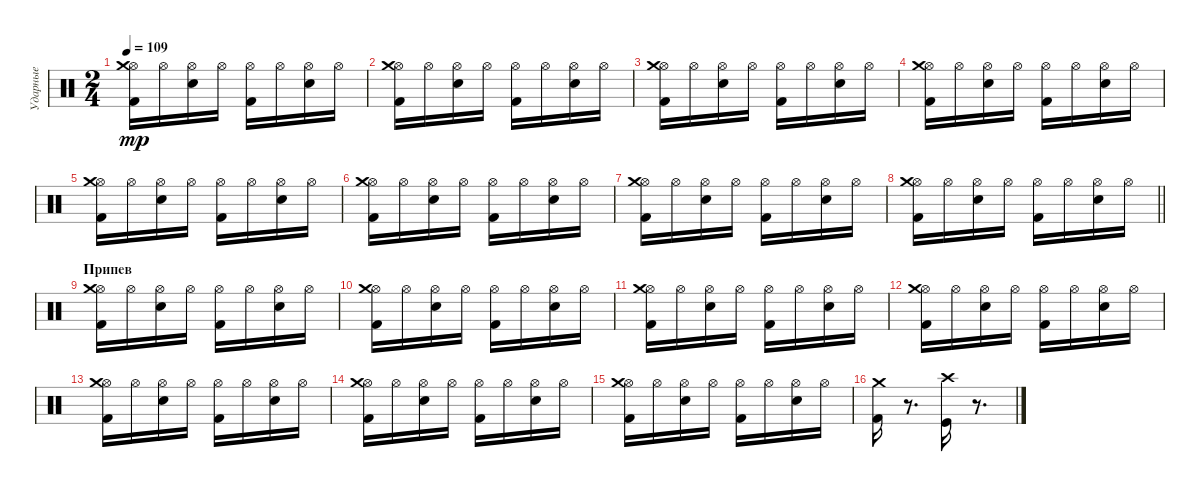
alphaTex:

\track ("Ударные" "Ударные") {instrument percussion}
\staff {score}
\articulation defaults
\ts (2 4)
\tempo 109
\clef neutral
\ks c
("Kick (hit) 2" "Hi-Hat (open)" "Crash medium (hit)").16{dy mp} "Hi-Hat (open)".16 ("Electric Snare (hit)" "Hi-Hat (open)").16 "Hi-Hat (open)".16 ("Kick (hit) 2" "Hi-Hat (open)").16 "Hi-Hat (open)".16 ("Electric Snare (hit)" "Hi-Hat (open)").16 "Hi-Hat (open)".16 |
("Kick (hit) 2" "Hi-Hat (open)" "Crash medium (hit)").16 "Hi-Hat (open)".16 ("Electric Snare (hit)" "Hi-Hat (open)").16 "Hi-Hat (open)".16 ("Kick (hit) 2" "Hi-Hat (open)").16 "Hi-Hat (open)".16 ("Electric Snare (hit)" "Hi-Hat (open)").16 "Hi-Hat (open)".16 |
("Kick (hit) 2" "Hi-Hat (open)" "Crash medium (hit)").16 "Hi-Hat (open)".16 ("Electric Snare (hit)" "Hi-Hat (open)").16 "Hi-Hat (open)".16 ("Kick (hit) 2" "Hi-Hat (open)").16 "Hi-Hat (open)".16 ("Electric Snare (hit)" "Hi-Hat (open)").16 "Hi-Hat (open)".16 |
("Kick (hit) 2" "Hi-Hat (open)" "Crash medium (hit)").16 "Hi-Hat (open)".16 ("Electric Snare (hit)" "Hi-Hat (open)").16 "Hi-Hat (open)".16 ("Kick (hit) 2" "Hi-Hat (open)").16 "Hi-Hat (open)".16 ("Electric Snare (hit)" "Hi-Hat (open)").16 "Hi-Hat (open)".16 |
("Kick (hit) 2" "Hi-Hat (open)" "Crash medium (hit)").16 "Hi-Hat (open)".16 ("Electric Snare (hit)" "Hi-Hat (open)").16 "Hi-Hat (open)".16 ("Kick (hit) 2" "Hi-Hat (open)").16 "Hi-Hat (open)".16 ("Electric Snare (hit)" "Hi-Hat (open)").16 "Hi-Hat (open)".16 |
("Kick (hit) 2" "Hi-Hat (open)" "Crash medium (hit)").16 "Hi-Hat (open)".16 ("Electric Snare (hit)" "Hi-Hat (open)").16 "Hi-Hat (open)".16 ("Kick (hit) 2" "Hi-Hat (open)").16 "Hi-Hat (open)".16 ("Electric Snare (hit)" "Hi-Hat (open)").16 "Hi-Hat (open)".16 |
("Kick (hit) 2" "Hi-Hat (open)" "Crash medium (hit)").16 "Hi-Hat (open)".16 ("Electric Snare (hit)" "Hi-Hat (open)").16 "Hi-Hat (open)".16 ("Kick (hit) 2" "Hi-Hat (open)").16 "Hi-Hat (open)".16 ("Electric Snare (hit)" "Hi-Hat (open)").16 "Hi-Hat (open)".16 |
\barLineRight lightlight
("Kick (hit) 2" "Hi-Hat (open)" "Crash medium (hit)").16 "Hi-Hat (open)".16 ("Electric Snare (hit)" "Hi-Hat (open)").16 "Hi-Hat (open)".16 ("Kick (hit) 2" "Hi-Hat (open)").16 "Hi-Hat (open)".16 ("Electric Snare (hit)" "Hi-Hat (open)").16 "Hi-Hat (open)".16 |
\section ("" "Припев")
("Kick (hit) 2" "Hi-Hat (open)" "Crash medium (hit)").16 "Hi-Hat (open)".16 ("Electric Snare (hit)" "Hi-Hat (open)").16 "Hi-Hat (open)".16 ("Kick (hit) 2" "Hi-Hat (open)").16 "Hi-Hat (open)".16 ("Electric Snare (hit)" "Hi-Hat (open)").16 "Hi-Hat (open)".16 |
("Kick (hit) 2" "Hi-Hat (open)" "Crash medium (hit)").16 "Hi-Hat (open)".16 ("Electric Snare (hit)" "Hi-Hat (open)").16 "Hi-Hat (open)".16 ("Kick (hit) 2" "Hi-Hat (open)").16 "Hi-Hat (open)".16 ("Electric Snare (hit)" "Hi-Hat (open)").16 "Hi-Hat (open)".16 |
("Kick (hit) 2" "Hi-Hat (open)" "Crash medium (hit)").16 "Hi-Hat (open)".16 ("Electric Snare (hit)" "Hi-Hat (open)").16 "Hi-Hat (open)".16 ("Kick (hit) 2" "Hi-Hat (open)").16 "Hi-Hat (open)".16 ("Electric Snare (hit)" "Hi-Hat (open)").16 "Hi-Hat (open)".16 |
("Kick (hit) 2" "Hi-Hat (open)" "Crash medium (hit)").16 "Hi-Hat (open)".16 ("Electric Snare (hit)" "Hi-Hat (open)").16 "Hi-Hat (open)".16 ("Kick (hit) 2" "Hi-Hat (open)").16 "Hi-Hat (open)".16 ("Electric Snare (hit)" "Hi-Hat (open)").16 "Hi-Hat (open)".16 |
("Kick (hit) 2" "Hi-Hat (open)" "Crash medium (hit)").16 "Hi-Hat (open)".16 ("Electric Snare (hit)" "Hi-Hat (open)").16 "Hi-Hat (open)".16 ("Kick (hit) 2" "Hi-Hat (open)").16 "Hi-Hat (open)".16 ("Electric Snare (hit)" "Hi-Hat (open)").16 "Hi-Hat (open)".16 |
("Kick (hit) 2" "Hi-Hat (open)" "Crash medium (hit)").16 "Hi-Hat (open)".16 ("Electric Snare (hit)" "Hi-Hat (open)").16 "Hi-Hat (open)".16 ("Kick (hit) 2" "Hi-Hat (open)").16 "Hi-Hat (open)".16 ("Electric Snare (hit)" "Hi-Hat (open)").16 "Hi-Hat (open)".16 |
("Kick (hit) 2" "Hi-Hat (open)" "Crash medium (hit)").16 "Hi-Hat (open)".16 ("Electric Snare (hit)" "Hi-Hat (open)").16 "Hi-Hat (open)".16 ("Kick (hit) 2" "Hi-Hat (open)").16 "Hi-Hat (open)".16 ("Electric Snare (hit)" "Hi-Hat (open)").16 "Hi-Hat (open)".16 |
("Kick (hit) 2" "Crash medium (hit)").16 r.8{d} ("Kick (hit)" "Crash high (hit)").16 r.8{d}
